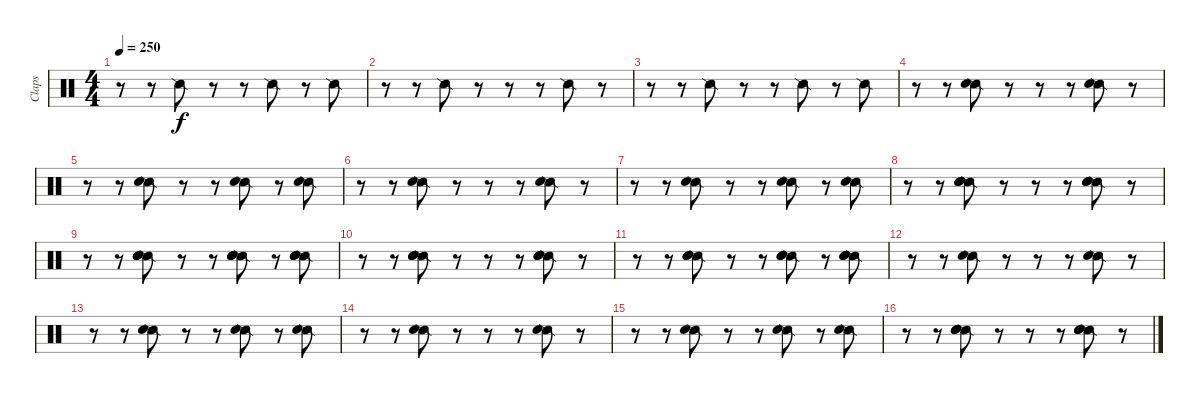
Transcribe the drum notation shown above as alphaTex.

\track ("Claps" "Claps") {instrument percussion}
\staff {score}
\articulation defaults
\ts (4 4)
\tempo 250
\clef neutral
\ks c
r.8{dy f} r.8 "Snare (side stick) 2".8 r.8 r.8 "Snare (side stick) 2".8 r.8 "Snare (side stick) 2".8 |
r.8 r.8 "Snare (side stick) 2".8 r.8 r.8 r.8 "Snare (side stick) 2".8 r.8 |
r.8 r.8 "Snare (side stick) 2".8 r.8 r.8 "Snare (side stick) 2".8 r.8 "Snare (side stick) 2".8 |
r.8 r.8 ("Snare (side stick) 2" "Hand Clap (hit)").8 r.8 r.8 r.8 ("Snare (side stick) 2" "Hand Clap (hit)").8 r.8 |
r.8 r.8 ("Snare (side stick) 2" "Hand Clap (hit)").8 r.8 r.8 ("Snare (side stick) 2" "Hand Clap (hit)").8 r.8 ("Snare (side stick) 2" "Hand Clap (hit)").8 |
r.8 r.8 ("Snare (side stick) 2" "Hand Clap (hit)").8 r.8 r.8 r.8 ("Snare (side stick) 2" "Hand Clap (hit)").8 r.8 |
r.8 r.8 ("Snare (side stick) 2" "Hand Clap (hit)").8 r.8 r.8 ("Snare (side stick) 2" "Hand Clap (hit)").8 r.8 ("Snare (side stick) 2" "Hand Clap (hit)").8 |
r.8 r.8 ("Snare (side stick) 2" "Hand Clap (hit)" "Hand Clap (hit)" "Hand Clap (hit)").8 r.8 r.8 r.8 ("Snare (side stick) 2" "Hand Clap (hit)" "Hand Clap (hit)" "Hand Clap (hit)").8 r.8 |
r.8 r.8 ("Snare (side stick) 2" "Hand Clap (hit)" "Hand Clap (hit)" "Hand Clap (hit)").8 r.8 r.8 ("Snare (side stick) 2" "Hand Clap (hit)" "Hand Clap (hit)" "Hand Clap (hit)").8 r.8 ("Snare (side stick) 2" "Hand Clap (hit)" "Hand Clap (hit)" "Hand Clap (hit)").8 |
r.8 r.8 ("Snare (side stick) 2" "Hand Clap (hit)" "Hand Clap (hit)" "Hand Clap (hit)").8 r.8 r.8 r.8 ("Snare (side stick) 2" "Hand Clap (hit)" "Hand Clap (hit)" "Hand Clap (hit)").8 r.8 |
r.8 r.8 ("Snare (side stick) 2" "Hand Clap (hit)" "Hand Clap (hit)" "Hand Clap (hit)").8 r.8 r.8 ("Snare (side stick) 2" "Hand Clap (hit)" "Hand Clap (hit)" "Hand Clap (hit)").8 r.8 ("Snare (side stick) 2" "Hand Clap (hit)" "Hand Clap (hit)" "Hand Clap (hit)").8 |
r.8 r.8 ("Snare (side stick) 2" "Hand Clap (hit)").8 r.8 r.8 r.8 ("Snare (side stick) 2" "Hand Clap (hit)").8 r.8 |
r.8 r.8 ("Snare (side stick) 2" "Hand Clap (hit)").8 r.8 r.8 ("Snare (side stick) 2" "Hand Clap (hit)").8 r.8 ("Snare (side stick) 2" "Hand Clap (hit)").8 |
r.8 r.8 ("Snare (side stick) 2" "Hand Clap (hit)").8 r.8 r.8 r.8 ("Snare (side stick) 2" "Hand Clap (hit)").8 r.8 |
r.8 r.8 ("Snare (side stick) 2" "Hand Clap (hit)").8 r.8 r.8 ("Snare (side stick) 2" "Hand Clap (hit)").8 r.8 ("Snare (side stick) 2" "Hand Clap (hit)").8 |
r.8 r.8 ("Snare (side stick) 2" "Hand Clap (hit)" "Hand Clap (hit)" "Hand Clap (hit)").8 r.8 r.8 r.8 ("Snare (side stick) 2" "Hand Clap (hit)" "Hand Clap (hit)" "Hand Clap (hit)").8 r.8
